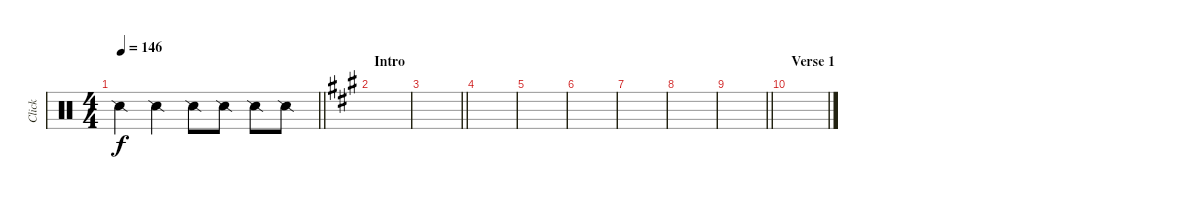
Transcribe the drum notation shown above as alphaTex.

\track ("Click" "Click") {instrument percussion}
\staff {score}
\articulation defaults
\ts (4 4)
\tempo 146
\clef neutral
\barLineRight lightlight
\ks c "Snare (side stick) 2".4{dy f} "Snare (side stick) 2".4 "Snare (side stick) 2".8 "Snare (side stick) 2".8 "Snare (side stick) 2".8 "Snare (side stick) 2".8
|
\section ("" "Intro")
\ks a
|
\barLineRight lightlight
|
|
|
|
|
|
\barLineRight lightlight
|
\section ("" "Verse 1")
